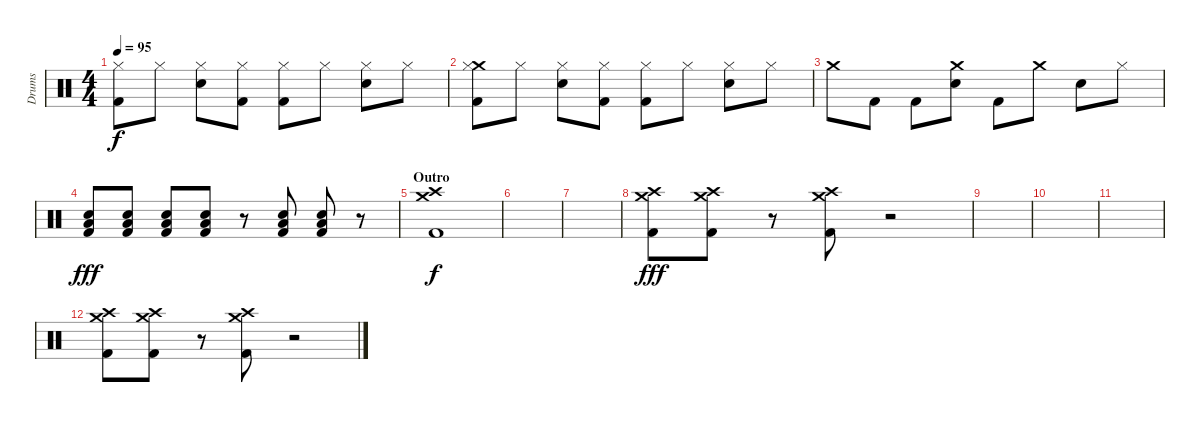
\track ("Drums" "Drums") {instrument percussion}
\staff {score}
\articulation defaults
\ts (4 4)
\tempo 95
\clef neutral
\ks c
("Hi-Hat (closed)" "Kick (hit) 2").8{dy f} "Hi-Hat (closed)".8 ("Hi-Hat (closed)" "Snare (hit) 2").8 ("Hi-Hat (closed)" "Kick (hit) 2").8 ("Hi-Hat (closed)" "Kick (hit) 2").8 "Hi-Hat (closed)".8 ("Hi-Hat (closed)" "Snare (hit) 2").8 "Hi-Hat (closed)".8 |
("Crash medium (hit)" "Hi-Hat (closed)" "Kick (hit) 2").8 "Hi-Hat (closed)".8 ("Hi-Hat (closed)" "Snare (hit) 2").8 ("Hi-Hat (closed)" "Kick (hit) 2").8 ("Hi-Hat (closed)" "Kick (hit) 2").8 "Hi-Hat (closed)".8 ("Hi-Hat (closed)" "Snare (hit) 2").8 "Hi-Hat (closed)".8 |
"Crash medium (hit)".8 "Kick (hit) 2".8 "Kick (hit) 2".8 ("Crash medium (hit)" "Snare (hit) 2").8 "Kick (hit) 2".8 "Crash medium (hit)".8 "Snare (hit) 2".8 "Hi-Hat (closed)".8 |
("Low Floor Tom (hit)" "Snare (hit) 2" "Kick (hit) 2").8{dy fff} ("Low Floor Tom (hit)" "Snare (hit) 2" "Kick (hit) 2").8 ("Low Floor Tom (hit)" "Snare (hit) 2" "Kick (hit) 2").8 ("Low Floor Tom (hit)" "Snare (hit) 2" "Kick (hit) 2").8 r.8 ("Low Floor Tom (hit)" "Snare (hit) 2" "Kick (hit) 2").8 ("Low Floor Tom (hit)" "Snare (hit) 2" "Kick (hit) 2").8 r.8 |
\section ("" "Outro")
("Crash medium (hit)" "Crash high (hit)" "Kick (hit) 2").1{dy f} |
|
|
("Crash medium (hit)" "Crash high (hit)" "Kick (hit) 2").8{dy fff} ("Crash medium (hit)" "Crash high (hit)" "Kick (hit) 2").8 r.8 ("Crash medium (hit)" "Crash high (hit)" "Kick (hit) 2").8 r.2 |
|
|
|
("Crash medium (hit)" "Crash high (hit)" "Kick (hit) 2").8 ("Crash medium (hit)" "Crash high (hit)" "Kick (hit) 2").8 r.8 ("Crash medium (hit)" "Crash high (hit)" "Kick (hit) 2").8 r.2
